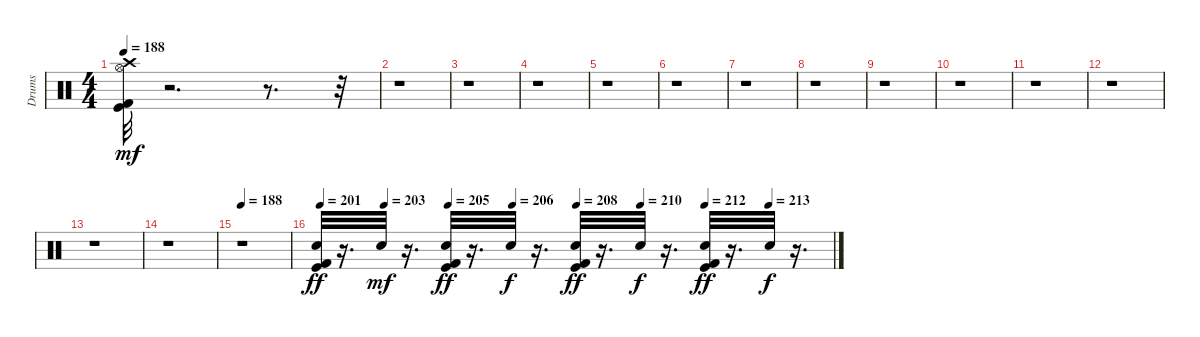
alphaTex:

\track ("Drums" "Drums") {instrument percussion}
\staff {score}
\articulation defaults
\ts (4 4)
\tempo 188
\clef neutral
\ks c
("Kick (hit) 2" "Kick (hit)" "Crash high (hit)" "Hi-Hat (open)").32{dy mf} r.2{d} r.8{d} r.32 |
r.1 |
r.1 |
r.1 |
r.1 |
r.1 |
r.1 |
r.1 |
r.1 |
r.1 |
r.1 |
r.1 |
r.1 |
r.1 |
\tempo 188
r.1 |
\tempo 201
\tempo (203 0.125)
\tempo (205 0.25)
\tempo (206 0.375)
\tempo (208 0.5)
\tempo (210 0.625)
\tempo (212 0.75)
\tempo (213 0.875)
("Snare (hit) 2" "Kick (hit) 2" "Kick (hit)").32{dy ff} r.16{d} "Snare (hit) 2".32{dy mf} r.16{d} ("Snare (hit) 2" "Kick (hit) 2" "Kick (hit)").32{dy ff} r.16{d} "Snare (hit) 2".32{dy f} r.16{d} ("Snare (hit) 2" "Kick (hit) 2" "Kick (hit)").32{dy ff} r.16{d} "Snare (hit) 2".32{dy f} r.16{d} ("Snare (hit) 2" "Kick (hit) 2" "Kick (hit)").32{dy ff} r.16{d} "Snare (hit) 2".32{dy f} r.16{d}
